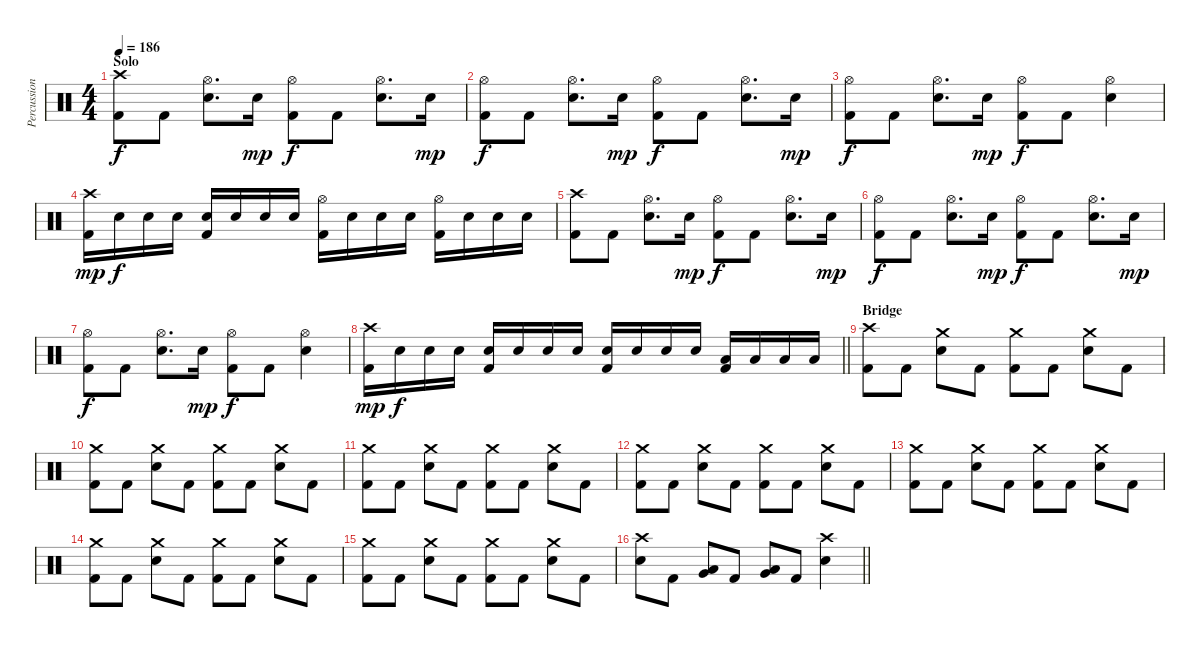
\track ("Percussion" "Percussion") {instrument percussion}
\staff {score}
\articulation defaults
\ts (4 4)
\section ("" "Solo")
\tempo 186
\clef neutral
\ks c
("Crash high (hit)" "Kick (hit) 2").8{dy f} "Kick (hit) 2".8 ("Hi-Hat (open)" "Electric Snare (hit)").8{d} "Electric Snare (hit)".16{dy mp} ("Hi-Hat (open)" "Kick (hit) 2").8{dy f} "Kick (hit) 2".8 ("Hi-Hat (open)" "Electric Snare (hit)").8{d} "Electric Snare (hit)".16{dy mp} |
("Hi-Hat (open)" "Kick (hit) 2").8{dy f} "Kick (hit) 2".8 ("Hi-Hat (open)" "Electric Snare (hit)").8{d} "Electric Snare (hit)".16{dy mp} ("Hi-Hat (open)" "Kick (hit) 2").8{dy f} "Kick (hit) 2".8 ("Hi-Hat (open)" "Electric Snare (hit)").8{d} "Electric Snare (hit)".16{dy mp} |
("Hi-Hat (open)" "Kick (hit) 2").8{dy f} "Kick (hit) 2".8 ("Hi-Hat (open)" "Electric Snare (hit)").8{d} "Electric Snare (hit)".16{dy mp} ("Hi-Hat (open)" "Kick (hit) 2").8{dy f} "Kick (hit) 2".8 ("Hi-Hat (open)" "Electric Snare (hit)").4 |
("Crash high (hit)" "Kick (hit) 2").16{dy mp} "Electric Snare (hit)".16{dy f} "Electric Snare (hit)".16 "Electric Snare (hit)".16 ("Electric Snare (hit)" "Kick (hit) 2").16 "Electric Snare (hit)".16 "Electric Snare (hit)".16 "Electric Snare (hit)".16 ("Hi-Hat (open)" "Kick (hit) 2").16 "Electric Snare (hit)".16 "Electric Snare (hit)".16 "Electric Snare (hit)".16 ("Hi-Hat (open)" "Kick (hit) 2").16 "Electric Snare (hit)".16 "Electric Snare (hit)".16 "Electric Snare (hit)".16 |
("Crash high (hit)" "Kick (hit) 2").8 "Kick (hit) 2".8 ("Hi-Hat (open)" "Electric Snare (hit)").8{d} "Electric Snare (hit)".16{dy mp} ("Hi-Hat (open)" "Kick (hit) 2").8{dy f} "Kick (hit) 2".8 ("Hi-Hat (open)" "Electric Snare (hit)").8{d} "Electric Snare (hit)".16{dy mp} |
("Hi-Hat (open)" "Kick (hit) 2").8{dy f} "Kick (hit) 2".8 ("Hi-Hat (open)" "Electric Snare (hit)").8{d} "Electric Snare (hit)".16{dy mp} ("Hi-Hat (open)" "Kick (hit) 2").8{dy f} "Kick (hit) 2".8 ("Hi-Hat (open)" "Electric Snare (hit)").8{d} "Electric Snare (hit)".16{dy mp} |
("Hi-Hat (open)" "Kick (hit) 2").8{dy f} "Kick (hit) 2".8 ("Hi-Hat (open)" "Electric Snare (hit)").8{d} "Electric Snare (hit)".16{dy mp} ("Hi-Hat (open)" "Kick (hit) 2").8{dy f} "Kick (hit) 2".8 ("Hi-Hat (open)" "Electric Snare (hit)").4 |
\barLineRight lightlight
("Crash high (hit)" "Kick (hit) 2").16{dy mp} "Electric Snare (hit)".16{dy f} "Electric Snare (hit)".16 "Electric Snare (hit)".16 ("Electric Snare (hit)" "Kick (hit) 2").16 "Electric Snare (hit)".16 "Electric Snare (hit)".16 "Electric Snare (hit)".16 ("Electric Snare (hit)" "Kick (hit) 2").16 "Electric Snare (hit)".16 "Electric Snare (hit)".16 "Electric Snare (hit)".16 ("Low Tom (hit)" "Kick (hit) 2").16 "Low Tom (hit)".16 "Low Tom (hit)".16 "Low Tom (hit)".16 |
\section ("" "Bridge")
("Crash high (hit)" "Kick (hit) 2").8 "Kick (hit) 2".8 ("Crash medium (hit)" "Electric Snare (hit)").8 "Kick (hit) 2".8 ("Crash medium (hit)" "Kick (hit) 2").8 "Kick (hit) 2".8 ("Crash medium (hit)" "Electric Snare (hit)").8 "Kick (hit) 2".8 |
("Crash medium (hit)" "Kick (hit) 2").8 "Kick (hit) 2".8 ("Crash medium (hit)" "Electric Snare (hit)").8 "Kick (hit) 2".8 ("Crash medium (hit)" "Kick (hit) 2").8 "Kick (hit) 2".8 ("Crash medium (hit)" "Electric Snare (hit)").8 "Kick (hit) 2".8 |
("Crash medium (hit)" "Kick (hit) 2").8 "Kick (hit) 2".8 ("Crash medium (hit)" "Electric Snare (hit)").8 "Kick (hit) 2".8 ("Crash medium (hit)" "Kick (hit) 2").8 "Kick (hit) 2".8 ("Crash medium (hit)" "Electric Snare (hit)").8 "Kick (hit) 2".8 |
("Crash medium (hit)" "Kick (hit) 2").8 "Kick (hit) 2".8 ("Crash medium (hit)" "Electric Snare (hit)").8 "Kick (hit) 2".8 ("Crash medium (hit)" "Kick (hit) 2").8 "Kick (hit) 2".8 ("Crash medium (hit)" "Electric Snare (hit)").8 "Kick (hit) 2".8 |
("Crash medium (hit)" "Kick (hit) 2").8 "Kick (hit) 2".8 ("Crash medium (hit)" "Electric Snare (hit)").8 "Kick (hit) 2".8 ("Crash medium (hit)" "Kick (hit) 2").8 "Kick (hit) 2".8 ("Crash medium (hit)" "Electric Snare (hit)").8 "Kick (hit) 2".8 |
("Crash medium (hit)" "Kick (hit) 2").8 "Kick (hit) 2".8 ("Crash medium (hit)" "Electric Snare (hit)").8 "Kick (hit) 2".8 ("Crash medium (hit)" "Kick (hit) 2").8 "Kick (hit) 2".8 ("Crash medium (hit)" "Electric Snare (hit)").8 "Kick (hit) 2".8 |
("Crash medium (hit)" "Kick (hit) 2").8 "Kick (hit) 2".8 ("Crash medium (hit)" "Electric Snare (hit)").8 "Kick (hit) 2".8 ("Crash medium (hit)" "Kick (hit) 2").8 "Kick (hit) 2".8 ("Crash medium (hit)" "Electric Snare (hit)").8 "Kick (hit) 2".8 |
\barLineRight lightlight
("Crash high (hit)" "Electric Snare (hit)").8 "Kick (hit) 2".8 ("Low Tom (hit)" "Very Low Tom (hit)").8 "Kick (hit) 2".8 ("Very Low Tom (hit)" "Low Floor Tom (hit)").8 "Kick (hit) 2".8 ("Crash high (hit)" "Electric Snare (hit)").4
